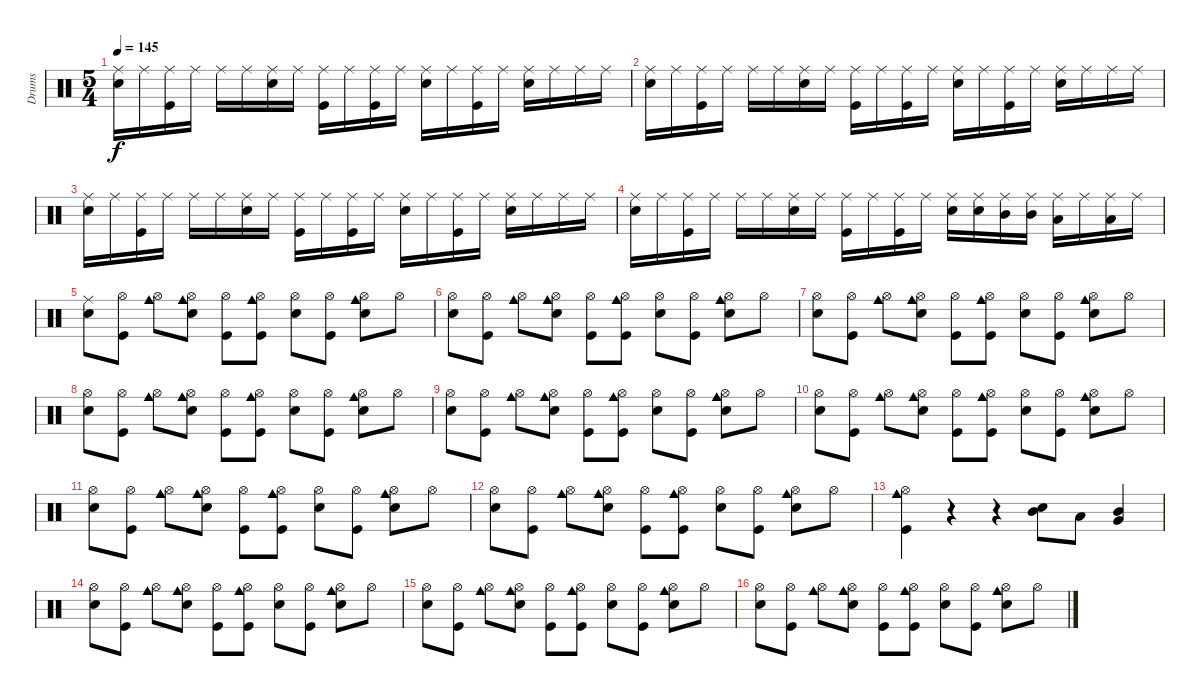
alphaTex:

\track ("Drums" "Drums") {instrument percussion}
\staff {score}
\articulation defaults
\ts (5 4)
\tempo 145
\clef neutral
\ks c
("Ride (middle)" "Snare (hit) 2").16{dy f} "Ride (middle)".16 ("Ride (middle)" "Kick (hit)").16 "Ride (middle)".16 "Ride (middle)".16 "Ride (middle)".16 ("Ride (middle)" "Snare (hit) 2").16 "Ride (middle)".16 ("Ride (middle)" "Kick (hit)").16 "Ride (middle)".16 ("Ride (middle)" "Kick (hit)").16 "Ride (middle)".16 ("Ride (middle)" "Snare (hit) 2").16 "Ride (middle)".16 ("Ride (middle)" "Kick (hit)").16 "Ride (middle)".16 ("Ride (middle)" "Snare (hit) 2").16 "Ride (middle)".16 "Ride (middle)".16 "Ride (middle)".16 |
("Ride (middle)" "Snare (hit) 2").16 "Ride (middle)".16 ("Ride (middle)" "Kick (hit)").16 "Ride (middle)".16 "Ride (middle)".16 "Ride (middle)".16 ("Ride (middle)" "Snare (hit) 2").16 "Ride (middle)".16 ("Ride (middle)" "Kick (hit)").16 "Ride (middle)".16 ("Ride (middle)" "Kick (hit)").16 "Ride (middle)".16 ("Ride (middle)" "Snare (hit) 2").16 "Ride (middle)".16 ("Ride (middle)" "Kick (hit)").16 "Ride (middle)".16 ("Ride (middle)" "Snare (hit) 2").16 "Ride (middle)".16 "Ride (middle)".16 "Ride (middle)".16 |
("Ride (middle)" "Snare (hit) 2").16 "Ride (middle)".16 ("Ride (middle)" "Kick (hit)").16 "Ride (middle)".16 "Ride (middle)".16 "Ride (middle)".16 ("Ride (middle)" "Snare (hit) 2").16 "Ride (middle)".16 ("Ride (middle)" "Kick (hit)").16 "Ride (middle)".16 ("Ride (middle)" "Kick (hit)").16 "Ride (middle)".16 ("Ride (middle)" "Snare (hit) 2").16 "Ride (middle)".16 ("Ride (middle)" "Kick (hit)").16 "Ride (middle)".16 ("Ride (middle)" "Snare (hit) 2").16 "Ride (middle)".16 "Ride (middle)".16 "Ride (middle)".16 |
("Ride (middle)" "Snare (hit) 2").16 "Ride (middle)".16 ("Ride (middle)" "Kick (hit)").16 "Ride (middle)".16 "Ride (middle)".16 "Ride (middle)".16 ("Ride (middle)" "Snare (hit) 2").16 "Ride (middle)".16 ("Ride (middle)" "Kick (hit)").16 "Ride (middle)".16 ("Ride (middle)" "Kick (hit)").16 "Ride (middle)".16 ("Ride (middle)" "Snare (hit) 2").16 ("Ride (middle)" "Snare (hit) 2").16 ("Ride (middle)" "Mid Tom (hit)").16 ("Ride (middle)" "Mid Tom (hit)").16 ("Ride (middle)" "Low Tom (hit)").16 "Ride (middle)".16 ("Ride (middle)" "Low Tom (hit)").16 "Ride (middle)".16 |
("Ride (middle)" "Snare (hit) 2").8 ("Hi-Hat (open)" "Kick (hit)").8 ("Hi-Hat (open)" "Cowbell medium (hit)").8 ("Hi-Hat (open)" "Cowbell medium (hit)" "Snare (hit) 2").8 ("Hi-Hat (open)" "Kick (hit)").8 ("Hi-Hat (open)" "Cowbell medium (hit)" "Kick (hit)").8 ("Hi-Hat (open)" "Snare (hit) 2").8 ("Hi-Hat (open)" "Kick (hit)").8 ("Hi-Hat (open)" "Cowbell medium (hit)" "Snare (hit) 2").8 "Hi-Hat (open)".8 |
("Hi-Hat (open)" "Snare (hit) 2").8 ("Hi-Hat (open)" "Kick (hit)").8 ("Hi-Hat (open)" "Cowbell medium (hit)").8 ("Hi-Hat (open)" "Cowbell medium (hit)" "Snare (hit) 2").8 ("Hi-Hat (open)" "Kick (hit)").8 ("Hi-Hat (open)" "Cowbell medium (hit)" "Kick (hit)").8 ("Hi-Hat (open)" "Snare (hit) 2").8 ("Hi-Hat (open)" "Kick (hit)").8 ("Hi-Hat (open)" "Cowbell medium (hit)" "Snare (hit) 2").8 "Hi-Hat (open)".8 |
("Hi-Hat (open)" "Snare (hit) 2").8 ("Hi-Hat (open)" "Kick (hit)").8 ("Hi-Hat (open)" "Cowbell medium (hit)").8 ("Hi-Hat (open)" "Cowbell medium (hit)" "Snare (hit) 2").8 ("Hi-Hat (open)" "Kick (hit)").8 ("Hi-Hat (open)" "Cowbell medium (hit)" "Kick (hit)").8 ("Hi-Hat (open)" "Snare (hit) 2").8 ("Hi-Hat (open)" "Kick (hit)").8 ("Hi-Hat (open)" "Cowbell medium (hit)" "Snare (hit) 2").8 "Hi-Hat (open)".8 |
("Hi-Hat (open)" "Snare (hit) 2").8 ("Hi-Hat (open)" "Kick (hit)").8 ("Hi-Hat (open)" "Cowbell medium (hit)").8 ("Hi-Hat (open)" "Cowbell medium (hit)" "Snare (hit) 2").8 ("Hi-Hat (open)" "Kick (hit)").8 ("Hi-Hat (open)" "Cowbell medium (hit)" "Kick (hit)").8 ("Hi-Hat (open)" "Snare (hit) 2").8 ("Hi-Hat (open)" "Kick (hit)").8 ("Hi-Hat (open)" "Cowbell medium (hit)" "Snare (hit) 2").8 "Hi-Hat (open)".8 |
("Hi-Hat (open)" "Snare (hit) 2").8 ("Hi-Hat (open)" "Kick (hit)").8 ("Hi-Hat (open)" "Cowbell medium (hit)").8 ("Hi-Hat (open)" "Cowbell medium (hit)" "Snare (hit) 2").8 ("Hi-Hat (open)" "Kick (hit)").8 ("Hi-Hat (open)" "Cowbell medium (hit)" "Kick (hit)").8 ("Hi-Hat (open)" "Snare (hit) 2").8 ("Hi-Hat (open)" "Kick (hit)").8 ("Hi-Hat (open)" "Cowbell medium (hit)" "Snare (hit) 2").8 "Hi-Hat (open)".8 |
("Hi-Hat (open)" "Snare (hit) 2").8 ("Hi-Hat (open)" "Kick (hit)").8 ("Hi-Hat (open)" "Cowbell medium (hit)").8 ("Hi-Hat (open)" "Cowbell medium (hit)" "Snare (hit) 2").8 ("Hi-Hat (open)" "Kick (hit)").8 ("Hi-Hat (open)" "Cowbell medium (hit)" "Kick (hit)").8 ("Hi-Hat (open)" "Snare (hit) 2").8 ("Hi-Hat (open)" "Kick (hit)").8 ("Hi-Hat (open)" "Cowbell medium (hit)" "Snare (hit) 2").8 "Hi-Hat (open)".8 |
("Hi-Hat (open)" "Snare (hit) 2").8 ("Hi-Hat (open)" "Kick (hit)").8 ("Hi-Hat (open)" "Cowbell medium (hit)").8 ("Hi-Hat (open)" "Cowbell medium (hit)" "Snare (hit) 2").8 ("Hi-Hat (open)" "Kick (hit)").8 ("Hi-Hat (open)" "Cowbell medium (hit)" "Kick (hit)").8 ("Hi-Hat (open)" "Snare (hit) 2").8 ("Hi-Hat (open)" "Kick (hit)").8 ("Hi-Hat (open)" "Cowbell medium (hit)" "Snare (hit) 2").8 "Hi-Hat (open)".8 |
("Hi-Hat (open)" "Snare (hit) 2").8 ("Hi-Hat (open)" "Kick (hit)").8 ("Hi-Hat (open)" "Cowbell medium (hit)").8 ("Hi-Hat (open)" "Cowbell medium (hit)" "Snare (hit) 2").8 ("Hi-Hat (open)" "Kick (hit)").8 ("Hi-Hat (open)" "Cowbell medium (hit)" "Kick (hit)").8 ("Hi-Hat (open)" "Snare (hit) 2").8 ("Hi-Hat (open)" "Kick (hit)").8 ("Hi-Hat (open)" "Cowbell medium (hit)" "Snare (hit) 2").8 "Hi-Hat (open)".8 |
("Hi-Hat (open)" "Cowbell medium (hit)" "Kick (hit)").4 r.4 r.4 ("Snare (hit) 2" "Mid Tom (hit)").8 "Low Tom (hit)".8 ("Mid Tom (hit)" "Very Low Tom (hit)").4 |
("Hi-Hat (open)" "Snare (hit) 2").8 ("Hi-Hat (open)" "Kick (hit)").8 ("Hi-Hat (open)" "Cowbell medium (hit)").8 ("Hi-Hat (open)" "Cowbell medium (hit)" "Snare (hit) 2").8 ("Hi-Hat (open)" "Kick (hit)").8 ("Hi-Hat (open)" "Cowbell medium (hit)" "Kick (hit)").8 ("Hi-Hat (open)" "Snare (hit) 2").8 ("Hi-Hat (open)" "Kick (hit)").8 ("Hi-Hat (open)" "Cowbell medium (hit)" "Snare (hit) 2").8 "Hi-Hat (open)".8 |
("Hi-Hat (open)" "Snare (hit) 2").8 ("Hi-Hat (open)" "Kick (hit)").8 ("Hi-Hat (open)" "Cowbell medium (hit)").8 ("Hi-Hat (open)" "Cowbell medium (hit)" "Snare (hit) 2").8 ("Hi-Hat (open)" "Kick (hit)").8 ("Hi-Hat (open)" "Cowbell medium (hit)" "Kick (hit)").8 ("Hi-Hat (open)" "Snare (hit) 2").8 ("Hi-Hat (open)" "Kick (hit)").8 ("Hi-Hat (open)" "Cowbell medium (hit)" "Snare (hit) 2").8 "Hi-Hat (open)".8 |
("Hi-Hat (open)" "Snare (hit) 2").8 ("Hi-Hat (open)" "Kick (hit)").8 ("Hi-Hat (open)" "Cowbell medium (hit)").8 ("Hi-Hat (open)" "Cowbell medium (hit)" "Snare (hit) 2").8 ("Hi-Hat (open)" "Kick (hit)").8 ("Hi-Hat (open)" "Cowbell medium (hit)" "Kick (hit)").8 ("Hi-Hat (open)" "Snare (hit) 2").8 ("Hi-Hat (open)" "Kick (hit)").8 ("Hi-Hat (open)" "Cowbell medium (hit)" "Snare (hit) 2").8 "Hi-Hat (open)".8
